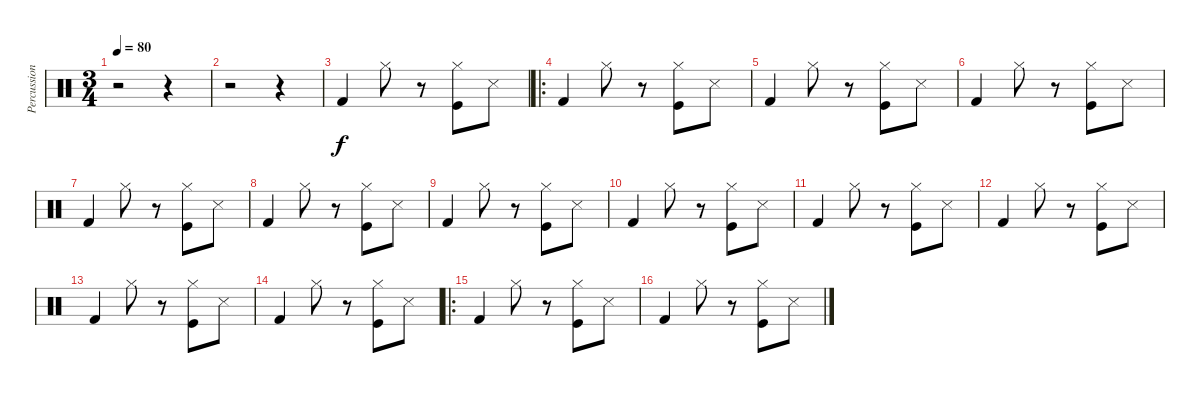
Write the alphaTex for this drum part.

\track ("Percussions" "Percussion") {instrument percussion}
\staff {score}
\articulation defaults
\ts (3 4)
\tempo 80
\clef neutral
\ks c
r.2{dy f} r.4 |
r.2 r.4 |
"Kick (hit) 2".4 "Hi-Hat (closed)".8 r.8 ("Hi-Hat (closed)" "Kick (hit)").8 "Snare (side stick) 3".8 |
\ro "Kick (hit) 2".4 "Hi-Hat (closed)".8
r.8 ("Hi-Hat (closed)" "Kick (hit)").8 "Snare (side stick) 3".8 |
"Kick (hit) 2".4 "Hi-Hat (closed)".8 r.8 ("Hi-Hat (closed)" "Kick (hit)").8 "Snare (side stick) 3".8 |
"Kick (hit) 2".4 "Hi-Hat (closed)".8 r.8 ("Hi-Hat (closed)" "Kick (hit)").8 "Snare (side stick) 3".8 |
"Kick (hit) 2".4 "Hi-Hat (closed)".8 r.8 ("Hi-Hat (closed)" "Kick (hit)").8 "Snare (side stick) 3".8 |
"Kick (hit) 2".4 "Hi-Hat (closed)".8 r.8 ("Hi-Hat (closed)" "Kick (hit)").8 "Snare (side stick) 3".8 |
"Kick (hit) 2".4 "Hi-Hat (closed)".8 r.8 ("Hi-Hat (closed)" "Kick (hit)").8 "Snare (side stick) 3".8 |
"Kick (hit) 2".4 "Hi-Hat (closed)".8 r.8 ("Hi-Hat (closed)" "Kick (hit)").8 "Snare (side stick) 3".8 |
"Kick (hit) 2".4 "Hi-Hat (closed)".8 r.8 ("Hi-Hat (closed)" "Kick (hit)").8 "Snare (side stick) 3".8 |
"Kick (hit) 2".4 "Hi-Hat (closed)".8 r.8 ("Hi-Hat (closed)" "Kick (hit)").8 "Snare (side stick) 3".8 |
"Kick (hit) 2".4 "Hi-Hat (closed)".8 r.8 ("Hi-Hat (closed)" "Kick (hit)").8 "Snare (side stick) 3".8 |
"Kick (hit) 2".4 "Hi-Hat (closed)".8 r.8 ("Hi-Hat (closed)" "Kick (hit)").8 "Snare (side stick) 3".8 |
\ro "Kick (hit) 2".4 "Hi-Hat (closed)".8
r.8 ("Hi-Hat (closed)" "Kick (hit)").8 "Snare (side stick) 3".8 |
"Kick (hit) 2".4 "Hi-Hat (closed)".8 r.8 ("Hi-Hat (closed)" "Kick (hit)").8 "Snare (side stick) 3".8
